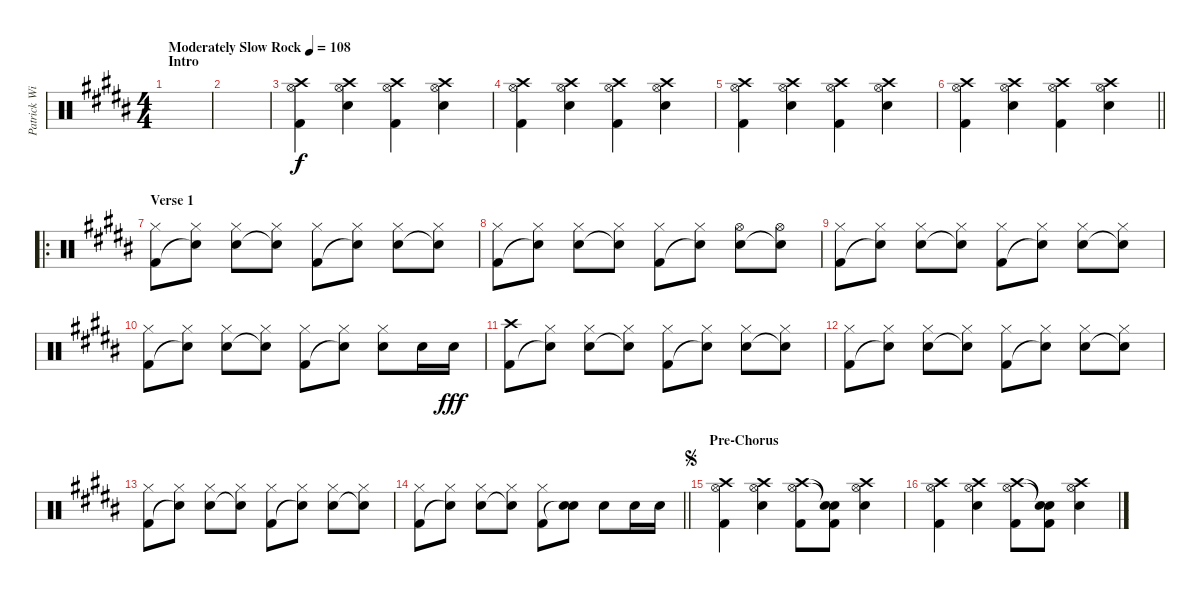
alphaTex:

\track ("Patrick Wilson - Drums" "Patrick Wi") {instrument percussion}
\staff {score}
\articulation defaults
\ts (4 4)
\section ("" "Intro")
\tempo (108 "Moderately Slow Rock")
\clef neutral
\ks b
|
|
("Crash high (hit)" "Hi-Hat (open)" "Kick (hit) 2").4 ("Crash high (hit)" "Hi-Hat (open)" "Electric Snare (hit)").4 ("Crash high (hit)" "Hi-Hat (open)" "Kick (hit) 2").4 ("Crash high (hit)" "Hi-Hat (open)" "Electric Snare (hit)").4 |
("Crash high (hit)" "Hi-Hat (open)" "Kick (hit) 2").4 ("Crash high (hit)" "Hi-Hat (open)" "Electric Snare (hit)").4 ("Crash high (hit)" "Hi-Hat (open)" "Kick (hit) 2").4 ("Crash high (hit)" "Hi-Hat (open)" "Electric Snare (hit)").4 |
("Crash high (hit)" "Hi-Hat (open)" "Kick (hit) 2").4 ("Crash high (hit)" "Hi-Hat (open)" "Electric Snare (hit)").4 ("Crash high (hit)" "Hi-Hat (open)" "Kick (hit) 2").4 ("Crash high (hit)" "Hi-Hat (open)" "Electric Snare (hit)").4 |
\barLineRight lightlight
("Crash high (hit)" "Hi-Hat (open)" "Kick (hit) 2").4 ("Crash high (hit)" "Hi-Hat (open)" "Electric Snare (hit)").4 ("Crash high (hit)" "Hi-Hat (open)" "Kick (hit) 2").4 ("Crash high (hit)" "Hi-Hat (open)" "Electric Snare (hit)").4 |
\ro
\section ("" "Verse 1")
("Hi-Hat (closed)" "Kick (hit) 2").8 ("Hi-Hat (closed)" "Snare (hit)"{t}).8 ("Hi-Hat (closed)" "Electric Snare (hit)").8 ("Hi-Hat (closed)" "Snare (hit)"{t}).8 ("Hi-Hat (closed)" "Kick (hit) 2").8 ("Hi-Hat (closed)" "Snare (hit)"{t}).8 ("Hi-Hat (closed)" "Electric Snare (hit)").8 ("Hi-Hat (closed)" "Snare (hit)"{t}).8 |
("Hi-Hat (closed)" "Kick (hit) 2").8 ("Hi-Hat (closed)" "Snare (hit)"{t}).8 ("Hi-Hat (closed)" "Electric Snare (hit)").8 ("Hi-Hat (closed)" "Snare (hit)"{t}).8 ("Hi-Hat (closed)" "Kick (hit) 2").8 ("Hi-Hat (closed)" "Snare (hit)"{t}).8 ("Hi-Hat (open)" "Electric Snare (hit)").8 ("Hi-Hat (open)" "Snare (hit)"{t}).8 |
("Hi-Hat (closed)" "Kick (hit) 2").8 ("Hi-Hat (closed)" "Snare (hit)"{t}).8 ("Hi-Hat (closed)" "Electric Snare (hit)").8 ("Hi-Hat (closed)" "Snare (hit)"{t}).8 ("Hi-Hat (closed)" "Kick (hit) 2").8 ("Hi-Hat (closed)" "Snare (hit)"{t}).8 ("Hi-Hat (closed)" "Electric Snare (hit)").8 ("Hi-Hat (closed)" "Snare (hit)"{t}).8 |
("Hi-Hat (closed)" "Kick (hit) 2").8 ("Hi-Hat (closed)" "Snare (hit)"{t}).8 ("Hi-Hat (closed)" "Electric Snare (hit)").8 ("Hi-Hat (closed)" "Snare (hit)"{t}).8 ("Hi-Hat (closed)" "Kick (hit) 2").8 ("Hi-Hat (closed)" "Snare (hit)"{t}).8 ("Hi-Hat (closed)" "Electric Snare (hit)").8 "Electric Snare (hit)".16{dy f} "Electric Snare (hit)".16{dy fff} |
("Crash high (hit)" "Kick (hit) 2").8 ("Hi-Hat (closed)" "Snare (hit)"{t}).8 ("Hi-Hat (closed)" "Electric Snare (hit)").8 ("Hi-Hat (closed)" "Snare (hit)"{t}).8 ("Hi-Hat (closed)" "Kick (hit) 2").8 ("Hi-Hat (closed)" "Snare (hit)"{t}).8 ("Hi-Hat (closed)" "Electric Snare (hit)").8 ("Hi-Hat (closed)" "Snare (hit)"{t}).8 |
("Hi-Hat (closed)" "Kick (hit) 2").8 ("Hi-Hat (closed)" "Snare (hit)"{t}).8 ("Hi-Hat (closed)" "Electric Snare (hit)").8 ("Hi-Hat (closed)" "Snare (hit)"{t}).8 ("Hi-Hat (closed)" "Kick (hit) 2").8 ("Hi-Hat (closed)" "Snare (hit)"{t}).8 ("Hi-Hat (closed)" "Electric Snare (hit)").8 ("Hi-Hat (closed)" "Snare (hit)"{t}).8 |
("Hi-Hat (closed)" "Kick (hit) 2").8 ("Hi-Hat (closed)" "Snare (hit)"{t}).8 ("Hi-Hat (closed)" "Electric Snare (hit)").8 ("Hi-Hat (closed)" "Snare (hit)"{t}).8 ("Hi-Hat (closed)" "Kick (hit) 2").8 ("Hi-Hat (closed)" "Snare (hit)"{t}).8 ("Hi-Hat (closed)" "Electric Snare (hit)").8 ("Hi-Hat (closed)" "Snare (hit)"{t}).8 |
\barLineRight lightlight
("Hi-Hat (closed)" "Kick (hit) 2").8 ("Hi-Hat (closed)" "Snare (hit)"{t}).8 ("Hi-Hat (closed)" "Electric Snare (hit)").8 ("Hi-Hat (closed)" "Snare (hit)"{t}).8 ("Hi-Hat (closed)" "Kick (hit) 2").8 ("Electric Snare (hit)" "Snare (hit)"{t}).8 "Electric Snare (hit)".8 "Electric Snare (hit)".16 "Electric Snare (hit)".16 |
\section ("" "Pre-Chorus")
\jump segno
("Crash high (hit)" "Hi-Hat (open)" "Kick (hit) 2").4 ("Crash high (hit)" "Hi-Hat (open)" "Electric Snare (hit)").4 ("Crash high (hit)" "Hi-Hat (open)" "Kick (hit) 2").8 ("Snare (hit)"{t} "Snare (hit)"{t} "Kick (hit) 2").8 ("Crash high (hit)" "Hi-Hat (open)" "Electric Snare (hit)").4 |
("Crash high (hit)" "Hi-Hat (open)" "Kick (hit) 2").4 ("Crash high (hit)" "Hi-Hat (open)" "Electric Snare (hit)").4 ("Crash high (hit)" "Hi-Hat (open)" "Kick (hit) 2").8 ("Snare (hit)"{t} "Snare (hit)"{t} "Kick (hit) 2").8 ("Crash high (hit)" "Hi-Hat (open)" "Electric Snare (hit)").4
